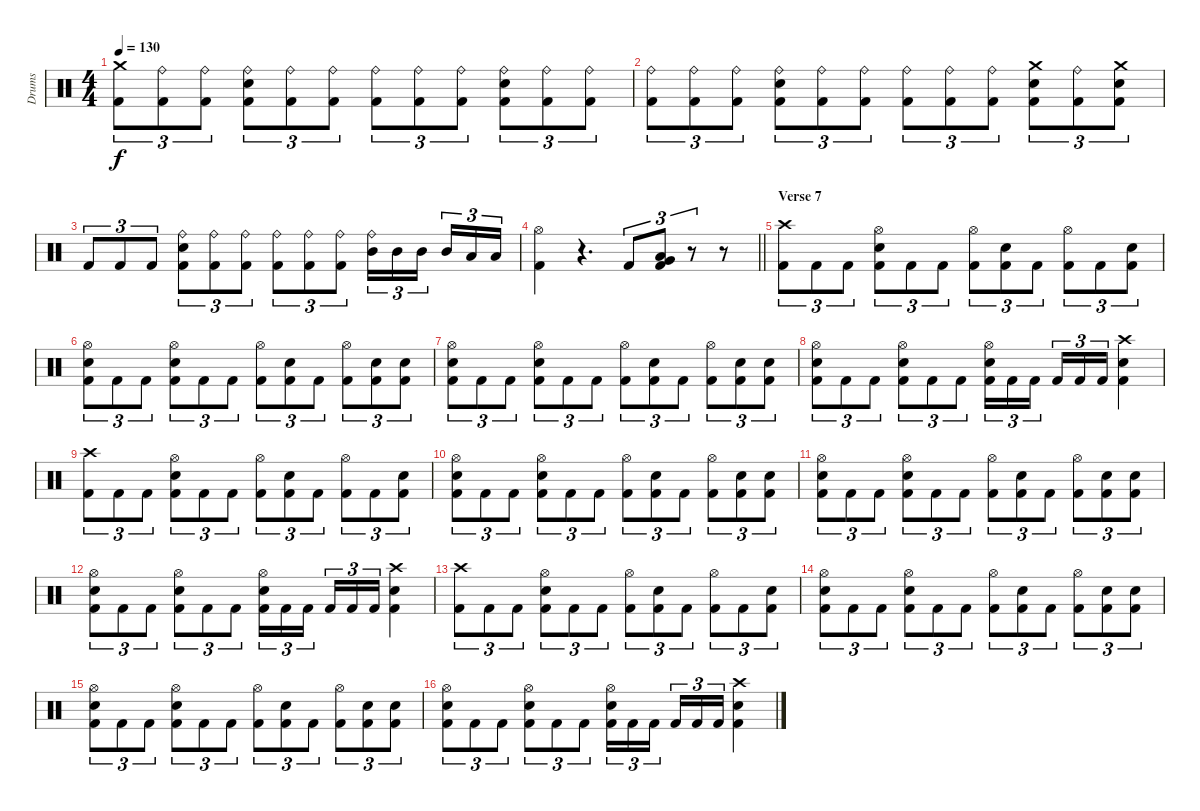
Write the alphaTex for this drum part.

\track ("Drums" "Drums") {instrument percussion}
\staff {score}
\articulation defaults
\ts (4 4)
\tempo 130
\clef neutral
\ks c
("Crash medium (hit)" "Kick (hit) 2").8{tu (3 2) dy f} ("Ride (bell)" "Kick (hit) 2").8{tu (3 2)} ("Ride (bell)" "Kick (hit) 2").8{tu (3 2)} ("Ride (bell)" "Electric Snare (hit)" "Kick (hit) 2").8{tu (3 2)} ("Ride (bell)" "Kick (hit) 2").8{tu (3 2)} ("Ride (bell)" "Kick (hit) 2").8{tu (3 2)} ("Ride (bell)" "Kick (hit) 2").8{tu (3 2)} ("Ride (bell)" "Kick (hit) 2").8{tu (3 2)} ("Ride (bell)" "Kick (hit) 2").8{tu (3 2)} ("Ride (bell)" "Electric Snare (hit)" "Kick (hit) 2").8{tu (3 2)} ("Ride (bell)" "Kick (hit) 2").8{tu (3 2)} ("Ride (bell)" "Kick (hit) 2").8{tu (3 2)} |
("Ride (bell)" "Kick (hit) 2").8{tu (3 2)} ("Ride (bell)" "Kick (hit) 2").8{tu (3 2)} ("Ride (bell)" "Kick (hit) 2").8{tu (3 2)} ("Ride (bell)" "Electric Snare (hit)" "Kick (hit) 2").8{tu (3 2)} ("Ride (bell)" "Kick (hit) 2").8{tu (3 2)} ("Ride (bell)" "Kick (hit) 2").8{tu (3 2)} ("Ride (bell)" "Kick (hit) 2").8{tu (3 2)} ("Ride (bell)" "Kick (hit) 2").8{tu (3 2)} ("Ride (bell)" "Kick (hit) 2").8{tu (3 2)} ("Crash medium (hit)" "Electric Snare (hit)" "Kick (hit) 2").8{tu (3 2)} ("Ride (bell)" "Kick (hit) 2").8{tu (3 2)} ("Crash medium (hit)" "Electric Snare (hit)" "Kick (hit) 2").8{tu (3 2)} |
"Kick (hit) 2".8{tu (3 2)} "Kick (hit) 2".8{tu (3 2)} "Kick (hit) 2".8{tu (3 2)} ("Ride (bell)" "Electric Snare (hit)" "Kick (hit) 2").8{tu (3 2)} ("Ride (bell)" "Kick (hit) 2").8{tu (3 2)} ("Ride (bell)" "Kick (hit) 2").8{tu (3 2)} ("Ride (bell)" "Kick (hit) 2").8{tu (3 2)} ("Ride (bell)" "Kick (hit) 2").8{tu (3 2)} ("Ride (bell)" "Kick (hit) 2").8{tu (3 2)} ("Ride (bell)" "Mid Tom (hit)").16{tu (3 2)} "Mid Tom (hit)".16{tu (3 2)} "Mid Tom (hit)".16{tu (3 2) beam splitsecondary} "Mid Tom (hit)".16{tu (3 2)} "Low Tom (hit)".16{tu (3 2)} "Low Tom (hit)".16{tu (3 2)} |
\barLineRight lightlight
("Hi-Hat (open)" "Kick (hit) 2").4 r.4{d} "Kick (hit) 2".8{tu (3 2)} ("Low Tom (hit)" "Very Low Tom (hit)" "Kick (hit) 2").8{tu (3 2)} r.8{tu (3 2)} r.8 |
\section ("" "Verse 7")
("Crash high (hit)" "Kick (hit) 2").8{tu (3 2)} "Kick (hit) 2".8{tu (3 2)} "Kick (hit) 2".8{tu (3 2)} ("Hi-Hat (open)" "Electric Snare (hit)" "Kick (hit) 2").8{tu (3 2)} "Kick (hit) 2".8{tu (3 2)} "Kick (hit) 2".8{tu (3 2)} ("Hi-Hat (open)" "Kick (hit) 2").8{tu (3 2)} ("Electric Snare (hit)" "Kick (hit) 2").8{tu (3 2)} "Kick (hit) 2".8{tu (3 2)} ("Hi-Hat (open)" "Kick (hit) 2").8{tu (3 2)} "Kick (hit) 2".8{tu (3 2)} ("Electric Snare (hit)" "Kick (hit) 2").8{tu (3 2)} |
("Hi-Hat (open)" "Electric Snare (hit)" "Kick (hit) 2").8{tu (3 2)} "Kick (hit) 2".8{tu (3 2)} "Kick (hit) 2".8{tu (3 2)} ("Hi-Hat (open)" "Electric Snare (hit)" "Kick (hit) 2").8{tu (3 2)} "Kick (hit) 2".8{tu (3 2)} "Kick (hit) 2".8{tu (3 2)} ("Hi-Hat (open)" "Kick (hit) 2").8{tu (3 2)} ("Electric Snare (hit)" "Kick (hit) 2").8{tu (3 2)} "Kick (hit) 2".8{tu (3 2)} ("Hi-Hat (open)" "Kick (hit) 2").8{tu (3 2)} ("Electric Snare (hit)" "Kick (hit) 2").8{tu (3 2)} ("Electric Snare (hit)" "Kick (hit) 2").8{tu (3 2)} |
("Hi-Hat (open)" "Electric Snare (hit)" "Kick (hit) 2").8{tu (3 2)} "Kick (hit) 2".8{tu (3 2)} "Kick (hit) 2".8{tu (3 2)} ("Hi-Hat (open)" "Electric Snare (hit)" "Kick (hit) 2").8{tu (3 2)} "Kick (hit) 2".8{tu (3 2)} "Kick (hit) 2".8{tu (3 2)} ("Hi-Hat (open)" "Kick (hit) 2").8{tu (3 2)} ("Electric Snare (hit)" "Kick (hit) 2").8{tu (3 2)} "Kick (hit) 2".8{tu (3 2)} ("Hi-Hat (open)" "Kick (hit) 2").8{tu (3 2)} ("Electric Snare (hit)" "Kick (hit) 2").8{tu (3 2)} ("Electric Snare (hit)" "Kick (hit) 2").8{tu (3 2)} |
("Hi-Hat (open)" "Electric Snare (hit)" "Kick (hit) 2").8{tu (3 2)} "Kick (hit) 2".8{tu (3 2)} "Kick (hit) 2".8{tu (3 2)} ("Hi-Hat (open)" "Electric Snare (hit)" "Kick (hit) 2").8{tu (3 2)} "Kick (hit) 2".8{tu (3 2)} "Kick (hit) 2".8{tu (3 2)} ("Hi-Hat (open)" "Electric Snare (hit)" "Kick (hit) 2").16{tu (3 2)} "Kick (hit) 2".16{tu (3 2)} "Kick (hit) 2".16{tu (3 2) beam splitsecondary} "Kick (hit) 2".16{tu (3 2)} "Kick (hit) 2".16{tu (3 2)} "Kick (hit) 2".16{tu (3 2)} ("Crash high (hit)" "Electric Snare (hit)" "Kick (hit) 2").4 |
("Crash high (hit)" "Kick (hit) 2").8{tu (3 2)} "Kick (hit) 2".8{tu (3 2)} "Kick (hit) 2".8{tu (3 2)} ("Hi-Hat (open)" "Electric Snare (hit)" "Kick (hit) 2").8{tu (3 2)} "Kick (hit) 2".8{tu (3 2)} "Kick (hit) 2".8{tu (3 2)} ("Hi-Hat (open)" "Kick (hit) 2").8{tu (3 2)} ("Electric Snare (hit)" "Kick (hit) 2").8{tu (3 2)} "Kick (hit) 2".8{tu (3 2)} ("Hi-Hat (open)" "Kick (hit) 2").8{tu (3 2)} "Kick (hit) 2".8{tu (3 2)} ("Electric Snare (hit)" "Kick (hit) 2").8{tu (3 2)} |
("Hi-Hat (open)" "Electric Snare (hit)" "Kick (hit) 2").8{tu (3 2)} "Kick (hit) 2".8{tu (3 2)} "Kick (hit) 2".8{tu (3 2)} ("Hi-Hat (open)" "Electric Snare (hit)" "Kick (hit) 2").8{tu (3 2)} "Kick (hit) 2".8{tu (3 2)} "Kick (hit) 2".8{tu (3 2)} ("Hi-Hat (open)" "Kick (hit) 2").8{tu (3 2)} ("Electric Snare (hit)" "Kick (hit) 2").8{tu (3 2)} "Kick (hit) 2".8{tu (3 2)} ("Hi-Hat (open)" "Kick (hit) 2").8{tu (3 2)} ("Electric Snare (hit)" "Kick (hit) 2").8{tu (3 2)} ("Electric Snare (hit)" "Kick (hit) 2").8{tu (3 2)} |
("Hi-Hat (open)" "Electric Snare (hit)" "Kick (hit) 2").8{tu (3 2)} "Kick (hit) 2".8{tu (3 2)} "Kick (hit) 2".8{tu (3 2)} ("Hi-Hat (open)" "Electric Snare (hit)" "Kick (hit) 2").8{tu (3 2)} "Kick (hit) 2".8{tu (3 2)} "Kick (hit) 2".8{tu (3 2)} ("Hi-Hat (open)" "Kick (hit) 2").8{tu (3 2)} ("Electric Snare (hit)" "Kick (hit) 2").8{tu (3 2)} "Kick (hit) 2".8{tu (3 2)} ("Hi-Hat (open)" "Kick (hit) 2").8{tu (3 2)} ("Electric Snare (hit)" "Kick (hit) 2").8{tu (3 2)} ("Electric Snare (hit)" "Kick (hit) 2").8{tu (3 2)} |
("Hi-Hat (open)" "Electric Snare (hit)" "Kick (hit) 2").8{tu (3 2)} "Kick (hit) 2".8{tu (3 2)} "Kick (hit) 2".8{tu (3 2)} ("Hi-Hat (open)" "Electric Snare (hit)" "Kick (hit) 2").8{tu (3 2)} "Kick (hit) 2".8{tu (3 2)} "Kick (hit) 2".8{tu (3 2)} ("Hi-Hat (open)" "Electric Snare (hit)" "Kick (hit) 2").16{tu (3 2)} "Kick (hit) 2".16{tu (3 2)} "Kick (hit) 2".16{tu (3 2) beam splitsecondary} "Kick (hit) 2".16{tu (3 2)} "Kick (hit) 2".16{tu (3 2)} "Kick (hit) 2".16{tu (3 2)} ("Crash high (hit)" "Electric Snare (hit)" "Kick (hit) 2").4 |
("Crash high (hit)" "Kick (hit) 2").8{tu (3 2)} "Kick (hit) 2".8{tu (3 2)} "Kick (hit) 2".8{tu (3 2)} ("Hi-Hat (open)" "Electric Snare (hit)" "Kick (hit) 2").8{tu (3 2)} "Kick (hit) 2".8{tu (3 2)} "Kick (hit) 2".8{tu (3 2)} ("Hi-Hat (open)" "Kick (hit) 2").8{tu (3 2)} ("Electric Snare (hit)" "Kick (hit) 2").8{tu (3 2)} "Kick (hit) 2".8{tu (3 2)} ("Hi-Hat (open)" "Kick (hit) 2").8{tu (3 2)} "Kick (hit) 2".8{tu (3 2)} ("Electric Snare (hit)" "Kick (hit) 2").8{tu (3 2)} |
("Hi-Hat (open)" "Electric Snare (hit)" "Kick (hit) 2").8{tu (3 2)} "Kick (hit) 2".8{tu (3 2)} "Kick (hit) 2".8{tu (3 2)} ("Hi-Hat (open)" "Electric Snare (hit)" "Kick (hit) 2").8{tu (3 2)} "Kick (hit) 2".8{tu (3 2)} "Kick (hit) 2".8{tu (3 2)} ("Hi-Hat (open)" "Kick (hit) 2").8{tu (3 2)} ("Electric Snare (hit)" "Kick (hit) 2").8{tu (3 2)} "Kick (hit) 2".8{tu (3 2)} ("Hi-Hat (open)" "Kick (hit) 2").8{tu (3 2)} ("Electric Snare (hit)" "Kick (hit) 2").8{tu (3 2)} ("Electric Snare (hit)" "Kick (hit) 2").8{tu (3 2)} |
("Hi-Hat (open)" "Electric Snare (hit)" "Kick (hit) 2").8{tu (3 2)} "Kick (hit) 2".8{tu (3 2)} "Kick (hit) 2".8{tu (3 2)} ("Hi-Hat (open)" "Electric Snare (hit)" "Kick (hit) 2").8{tu (3 2)} "Kick (hit) 2".8{tu (3 2)} "Kick (hit) 2".8{tu (3 2)} ("Hi-Hat (open)" "Kick (hit) 2").8{tu (3 2)} ("Electric Snare (hit)" "Kick (hit) 2").8{tu (3 2)} "Kick (hit) 2".8{tu (3 2)} ("Hi-Hat (open)" "Kick (hit) 2").8{tu (3 2)} ("Electric Snare (hit)" "Kick (hit) 2").8{tu (3 2)} ("Electric Snare (hit)" "Kick (hit) 2").8{tu (3 2)} |
("Hi-Hat (open)" "Electric Snare (hit)" "Kick (hit) 2").8{tu (3 2)} "Kick (hit) 2".8{tu (3 2)} "Kick (hit) 2".8{tu (3 2)} ("Hi-Hat (open)" "Electric Snare (hit)" "Kick (hit) 2").8{tu (3 2)} "Kick (hit) 2".8{tu (3 2)} "Kick (hit) 2".8{tu (3 2)} ("Hi-Hat (open)" "Electric Snare (hit)" "Kick (hit) 2").16{tu (3 2)} "Kick (hit) 2".16{tu (3 2)} "Kick (hit) 2".16{tu (3 2) beam splitsecondary} "Kick (hit) 2".16{tu (3 2)} "Kick (hit) 2".16{tu (3 2)} "Kick (hit) 2".16{tu (3 2)} ("Crash high (hit)" "Electric Snare (hit)" "Kick (hit) 2").4
